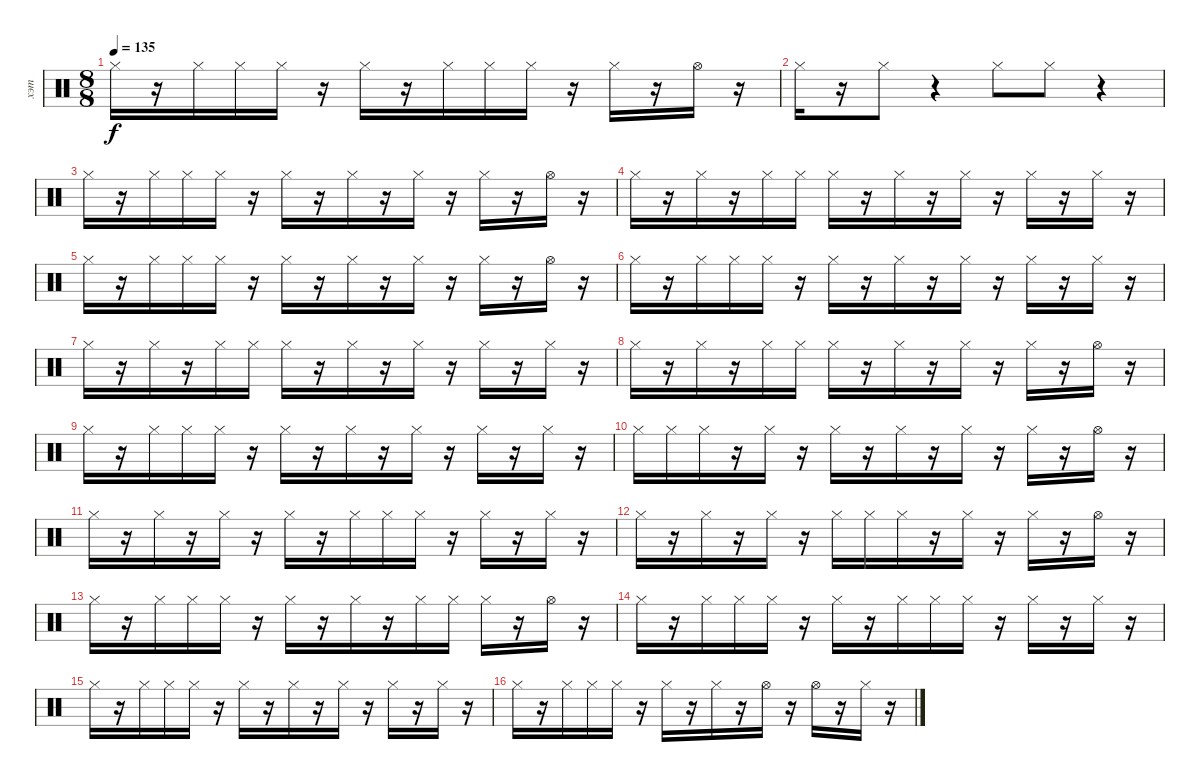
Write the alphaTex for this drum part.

\track ("хэт" "хэт") {instrument percussion}
\staff {score}
\articulation defaults
\ts (8 8)
\tempo 135
\clef neutral
\ks c "Hi-Hat (closed)".16{dy f}
r.16 "Hi-Hat (closed)".16 "Hi-Hat (closed)".16 "Hi-Hat (closed)".16 r.16 "Hi-Hat (closed)".16 r.16 "Hi-Hat (closed)".16 "Hi-Hat (closed)".16 "Hi-Hat (closed)".16 r.16 "Hi-Hat (closed)".16 r.16 "Hi-Hat (open)".16 r.16 |
"Hi-Hat (closed)".16 r.16 "Hi-Hat (closed)".8 r.4 "Hi-Hat (closed)".8 "Hi-Hat (closed)".8 r.4 |
"Hi-Hat (closed)".16 r.16 "Hi-Hat (closed)".16 "Hi-Hat (closed)".16 "Hi-Hat (closed)".16 r.16 "Hi-Hat (closed)".16 r.16 "Hi-Hat (closed)".16 r.16 "Hi-Hat (closed)".16 r.16 "Hi-Hat (closed)".16 r.16 "Hi-Hat (open)".16 r.16 |
"Hi-Hat (closed)".16 r.16 "Hi-Hat (closed)".16 r.16 "Hi-Hat (closed)".16 "Hi-Hat (closed)".16 "Hi-Hat (closed)".16 r.16 "Hi-Hat (closed)".16 r.16 "Hi-Hat (closed)".16 r.16 "Hi-Hat (closed)".16 r.16 "Hi-Hat (closed)".16 r.16 |
"Hi-Hat (closed)".16 r.16 "Hi-Hat (closed)".16 "Hi-Hat (closed)".16 "Hi-Hat (closed)".16 r.16 "Hi-Hat (closed)".16 r.16 "Hi-Hat (closed)".16 r.16 "Hi-Hat (closed)".16 r.16 "Hi-Hat (closed)".16 r.16 "Hi-Hat (open)".16 r.16 |
"Hi-Hat (closed)".16 r.16 "Hi-Hat (closed)".16 "Hi-Hat (closed)".16 "Hi-Hat (closed)".16 r.16 "Hi-Hat (closed)".16 r.16 "Hi-Hat (closed)".16 r.16 "Hi-Hat (closed)".16 r.16 "Hi-Hat (closed)".16 r.16 "Hi-Hat (closed)".16 r.16 |
"Hi-Hat (closed)".16 r.16 "Hi-Hat (closed)".16 r.16 "Hi-Hat (closed)".16 "Hi-Hat (closed)".16 "Hi-Hat (closed)".16 r.16 "Hi-Hat (closed)".16 r.16 "Hi-Hat (closed)".16 r.16 "Hi-Hat (closed)".16 r.16 "Hi-Hat (closed)".16 r.16 |
"Hi-Hat (closed)".16 r.16 "Hi-Hat (closed)".16 r.16 "Hi-Hat (closed)".16 "Hi-Hat (closed)".16 "Hi-Hat (closed)".16 r.16 "Hi-Hat (closed)".16 r.16 "Hi-Hat (closed)".16 r.16 "Hi-Hat (closed)".16 r.16 "Hi-Hat (open)".16 r.16 |
"Hi-Hat (closed)".16 r.16 "Hi-Hat (closed)".16 "Hi-Hat (closed)".16 "Hi-Hat (closed)".16 r.16 "Hi-Hat (closed)".16 r.16 "Hi-Hat (closed)".16 r.16 "Hi-Hat (closed)".16 r.16 "Hi-Hat (closed)".16 r.16 "Hi-Hat (closed)".16 r.16 |
"Hi-Hat (closed)".16 "Hi-Hat (closed)".16 "Hi-Hat (closed)".16 r.16 "Hi-Hat (closed)".16 r.16 "Hi-Hat (closed)".16 r.16 "Hi-Hat (closed)".16 r.16 "Hi-Hat (closed)".16 r.16 "Hi-Hat (closed)".16 r.16 "Hi-Hat (open)".16 r.16 |
"Hi-Hat (closed)".16 r.16 "Hi-Hat (closed)".16 r.16 "Hi-Hat (closed)".16 r.16 "Hi-Hat (closed)".16 r.16 "Hi-Hat (closed)".16 "Hi-Hat (closed)".16 "Hi-Hat (closed)".16 r.16 "Hi-Hat (closed)".16 r.16 "Hi-Hat (closed)".16 r.16 |
"Hi-Hat (closed)".16 r.16 "Hi-Hat (closed)".16 r.16 "Hi-Hat (closed)".16 r.16 "Hi-Hat (closed)".16 "Hi-Hat (closed)".16 "Hi-Hat (closed)".16 r.16 "Hi-Hat (closed)".16 r.16 "Hi-Hat (closed)".16 r.16 "Hi-Hat (open)".16 r.16 |
"Hi-Hat (closed)".16 r.16 "Hi-Hat (closed)".16 "Hi-Hat (closed)".16 "Hi-Hat (closed)".16 r.16 "Hi-Hat (closed)".16 r.16 "Hi-Hat (closed)".16 r.16 "Hi-Hat (closed)".16 "Hi-Hat (closed)".16 "Hi-Hat (closed)".16 r.16 "Hi-Hat (open)".16 r.16 |
"Hi-Hat (closed)".16 r.16 "Hi-Hat (closed)".16 "Hi-Hat (closed)".16 "Hi-Hat (closed)".16 r.16 "Hi-Hat (closed)".16 r.16 "Hi-Hat (closed)".16 "Hi-Hat (closed)".16 "Hi-Hat (closed)".16 r.16 "Hi-Hat (closed)".16 r.16 "Hi-Hat (closed)".16 r.16 |
"Hi-Hat (closed)".16 r.16 "Hi-Hat (closed)".16 "Hi-Hat (closed)".16 "Hi-Hat (closed)".16 r.16 "Hi-Hat (closed)".16 r.16 "Hi-Hat (closed)".16 r.16 "Hi-Hat (closed)".16 r.16 "Hi-Hat (closed)".16 r.16 "Hi-Hat (closed)".16 r.16 |
"Hi-Hat (closed)".16 r.16 "Hi-Hat (closed)".16 "Hi-Hat (closed)".16 "Hi-Hat (closed)".16 r.16 "Hi-Hat (closed)".16 r.16 "Hi-Hat (closed)".16 r.16 "Hi-Hat (open)".16 r.16 "Hi-Hat (open)".16 r.16 "Hi-Hat (closed)".16 r.16
